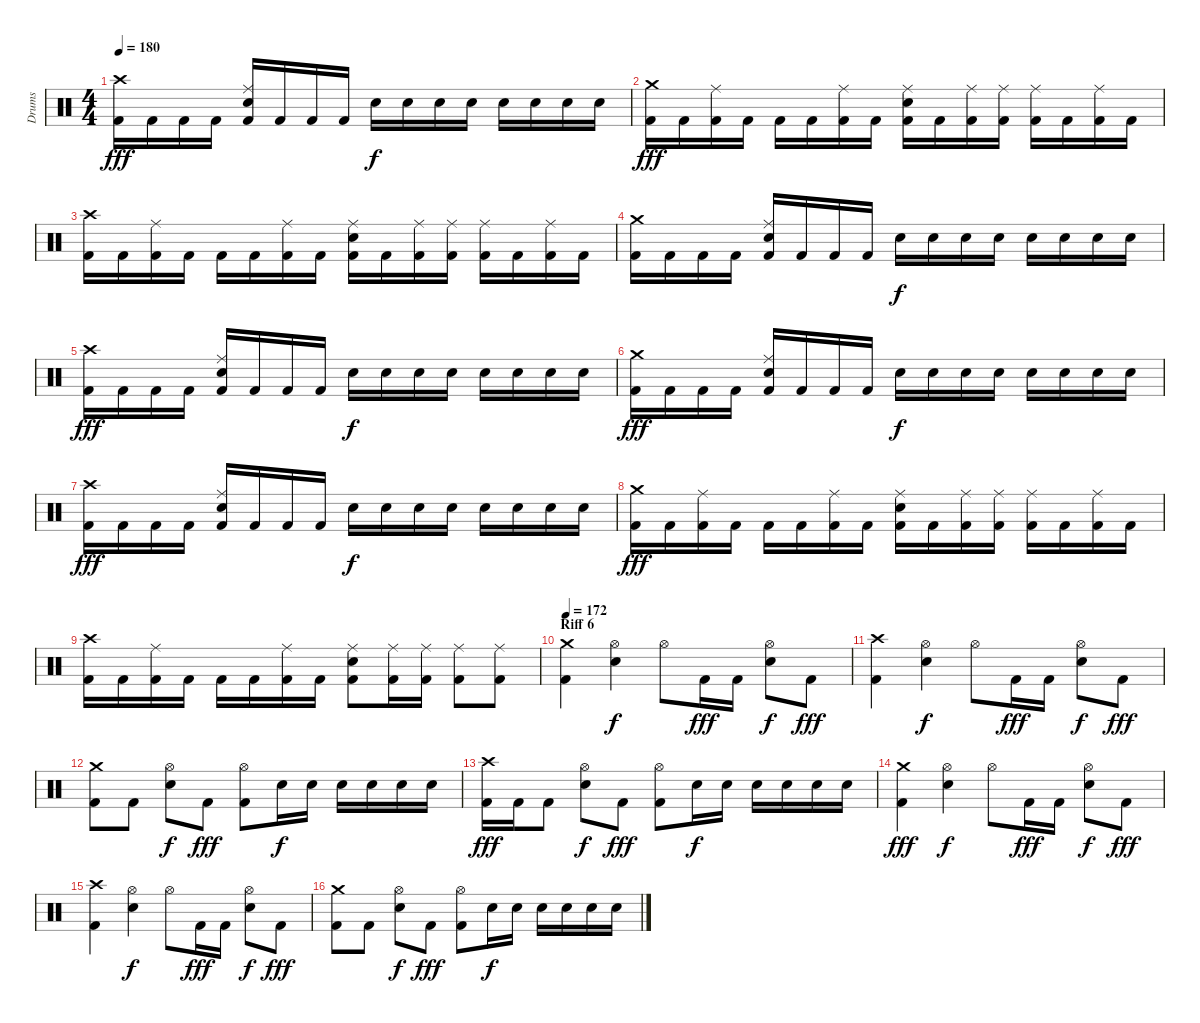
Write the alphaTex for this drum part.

\track ("Drums" "Drums") {instrument percussion}
\staff {score}
\articulation defaults
\ts (4 4)
\tempo 180
\clef neutral
\ks c
("Crash high (hit)" "Kick (hit) 2").16{dy fff} "Kick (hit) 2".16 "Kick (hit) 2".16 "Kick (hit) 2".16 ("Ride (middle)" "Electric Snare (hit)" "Kick (hit) 2").16 "Kick (hit) 2".16 "Kick (hit) 2".16 "Kick (hit) 2".16 "Electric Snare (hit)".16{dy f} "Electric Snare (hit)".16 "Electric Snare (hit)".16 "Electric Snare (hit)".16 "Electric Snare (hit)".16 "Electric Snare (hit)".16 "Electric Snare (hit)".16 "Electric Snare (hit)".16 |
("Crash medium (hit)" "Kick (hit) 2").16{dy fff} "Kick (hit) 2".16 ("Ride (middle)" "Kick (hit) 2").16 "Kick (hit) 2".16 "Kick (hit) 2".16 "Kick (hit) 2".16 ("Ride (middle)" "Kick (hit) 2").16 "Kick (hit) 2".16 ("Ride (middle)" "Electric Snare (hit)" "Kick (hit) 2").16 "Kick (hit) 2".16 ("Ride (middle)" "Kick (hit) 2").16 ("Ride (middle)" "Kick (hit) 2").16 ("Ride (middle)" "Kick (hit) 2").16 "Kick (hit) 2".16 ("Ride (middle)" "Kick (hit) 2").16 "Kick (hit) 2".16 |
("Crash high (hit)" "Kick (hit) 2").16 "Kick (hit) 2".16 ("Ride (middle)" "Kick (hit) 2").16 "Kick (hit) 2".16 "Kick (hit) 2".16 "Kick (hit) 2".16 ("Ride (middle)" "Kick (hit) 2").16 "Kick (hit) 2".16 ("Ride (middle)" "Electric Snare (hit)" "Kick (hit) 2").16 "Kick (hit) 2".16 ("Ride (middle)" "Kick (hit) 2").16 ("Ride (middle)" "Kick (hit) 2").16 ("Ride (middle)" "Kick (hit) 2").16 "Kick (hit) 2".16 ("Ride (middle)" "Kick (hit) 2").16 "Kick (hit) 2".16 |
("Crash medium (hit)" "Kick (hit) 2").16 "Kick (hit) 2".16 "Kick (hit) 2".16 "Kick (hit) 2".16 ("Ride (middle)" "Electric Snare (hit)" "Kick (hit) 2").16 "Kick (hit) 2".16 "Kick (hit) 2".16 "Kick (hit) 2".16 "Electric Snare (hit)".16{dy f} "Electric Snare (hit)".16 "Electric Snare (hit)".16 "Electric Snare (hit)".16 "Electric Snare (hit)".16 "Electric Snare (hit)".16 "Electric Snare (hit)".16 "Electric Snare (hit)".16 |
("Crash high (hit)" "Kick (hit) 2").16{dy fff} "Kick (hit) 2".16 "Kick (hit) 2".16 "Kick (hit) 2".16 ("Ride (middle)" "Electric Snare (hit)" "Kick (hit) 2").16 "Kick (hit) 2".16 "Kick (hit) 2".16 "Kick (hit) 2".16 "Electric Snare (hit)".16{dy f} "Electric Snare (hit)".16 "Electric Snare (hit)".16 "Electric Snare (hit)".16 "Electric Snare (hit)".16 "Electric Snare (hit)".16 "Electric Snare (hit)".16 "Electric Snare (hit)".16 |
("Crash medium (hit)" "Kick (hit) 2").16{dy fff} "Kick (hit) 2".16 "Kick (hit) 2".16 "Kick (hit) 2".16 ("Ride (middle)" "Electric Snare (hit)" "Kick (hit) 2").16 "Kick (hit) 2".16 "Kick (hit) 2".16 "Kick (hit) 2".16 "Electric Snare (hit)".16{dy f} "Electric Snare (hit)".16 "Electric Snare (hit)".16 "Electric Snare (hit)".16 "Electric Snare (hit)".16 "Electric Snare (hit)".16 "Electric Snare (hit)".16 "Electric Snare (hit)".16 |
("Crash high (hit)" "Kick (hit) 2").16{dy fff} "Kick (hit) 2".16 "Kick (hit) 2".16 "Kick (hit) 2".16 ("Ride (middle)" "Electric Snare (hit)" "Kick (hit) 2").16 "Kick (hit) 2".16 "Kick (hit) 2".16 "Kick (hit) 2".16 "Electric Snare (hit)".16{dy f} "Electric Snare (hit)".16 "Electric Snare (hit)".16 "Electric Snare (hit)".16 "Electric Snare (hit)".16 "Electric Snare (hit)".16 "Electric Snare (hit)".16 "Electric Snare (hit)".16 |
("Crash medium (hit)" "Kick (hit) 2").16{dy fff} "Kick (hit) 2".16 ("Ride (middle)" "Kick (hit) 2").16 "Kick (hit) 2".16 "Kick (hit) 2".16 "Kick (hit) 2".16 ("Ride (middle)" "Kick (hit) 2").16 "Kick (hit) 2".16 ("Ride (middle)" "Electric Snare (hit)" "Kick (hit) 2").16 "Kick (hit) 2".16 ("Ride (middle)" "Kick (hit) 2").16 ("Ride (middle)" "Kick (hit) 2").16 ("Ride (middle)" "Kick (hit) 2").16 "Kick (hit) 2".16 ("Ride (middle)" "Kick (hit) 2").16 "Kick (hit) 2".16 |
("Crash high (hit)" "Kick (hit) 2").16 "Kick (hit) 2".16 ("Ride (middle)" "Kick (hit) 2").16 "Kick (hit) 2".16 "Kick (hit) 2".16 "Kick (hit) 2".16 ("Ride (middle)" "Kick (hit) 2").16 "Kick (hit) 2".16 ("Ride (middle)" "Electric Snare (hit)" "Kick (hit) 2").8 ("Ride (middle)" "Kick (hit) 2").16 ("Ride (middle)" "Kick (hit) 2").16 ("Ride (middle)" "Kick (hit) 2").8 ("Ride (middle)" "Kick (hit) 2").8 |
\section ("" "Riff 6")
\tempo 172
("Crash medium (hit)" "Kick (hit) 2").4 ("Hi-Hat (open)" "Electric Snare (hit)").4{dy f} "Hi-Hat (open)".8 "Kick (hit) 2".16{dy fff} "Kick (hit) 2".16 ("Hi-Hat (open)" "Electric Snare (hit)").8{dy f} "Kick (hit) 2".8{dy fff} |
("Crash high (hit)" "Kick (hit) 2").4 ("Hi-Hat (open)" "Electric Snare (hit)").4{dy f} "Hi-Hat (open)".8 "Kick (hit) 2".16{dy fff} "Kick (hit) 2".16 ("Hi-Hat (open)" "Electric Snare (hit)").8{dy f} "Kick (hit) 2".8{dy fff} |
("Crash medium (hit)" "Kick (hit) 2").8 "Kick (hit) 2".8 ("Hi-Hat (open)" "Electric Snare (hit)").8{dy f} "Kick (hit) 2".8{dy fff} ("Hi-Hat (open)" "Kick (hit) 2").8 "Electric Snare (hit)".16{dy f} "Electric Snare (hit)".16 "Electric Snare (hit)".16 "Electric Snare (hit)".16 "Electric Snare (hit)".16 "Electric Snare (hit)".16 |
("Crash high (hit)" "Kick (hit) 2").16{dy fff} "Kick (hit) 2".16 "Kick (hit) 2".8 ("Hi-Hat (open)" "Electric Snare (hit)").8{dy f} "Kick (hit) 2".8{dy fff} ("Hi-Hat (open)" "Kick (hit) 2").8 "Electric Snare (hit)".16{dy f} "Electric Snare (hit)".16 "Electric Snare (hit)".16 "Electric Snare (hit)".16 "Electric Snare (hit)".16 "Electric Snare (hit)".16 |
("Crash medium (hit)" "Kick (hit) 2").4{dy fff} ("Hi-Hat (open)" "Electric Snare (hit)").4{dy f} "Hi-Hat (open)".8 "Kick (hit) 2".16{dy fff} "Kick (hit) 2".16 ("Hi-Hat (open)" "Electric Snare (hit)").8{dy f} "Kick (hit) 2".8{dy fff} |
("Crash high (hit)" "Kick (hit) 2").4 ("Hi-Hat (open)" "Electric Snare (hit)").4{dy f} "Hi-Hat (open)".8 "Kick (hit) 2".16{dy fff} "Kick (hit) 2".16 ("Hi-Hat (open)" "Electric Snare (hit)").8{dy f} "Kick (hit) 2".8{dy fff} |
("Crash medium (hit)" "Kick (hit) 2").8 "Kick (hit) 2".8 ("Hi-Hat (open)" "Electric Snare (hit)").8{dy f} "Kick (hit) 2".8{dy fff} ("Hi-Hat (open)" "Kick (hit) 2").8 "Electric Snare (hit)".16{dy f} "Electric Snare (hit)".16 "Electric Snare (hit)".16 "Electric Snare (hit)".16 "Electric Snare (hit)".16 "Electric Snare (hit)".16
